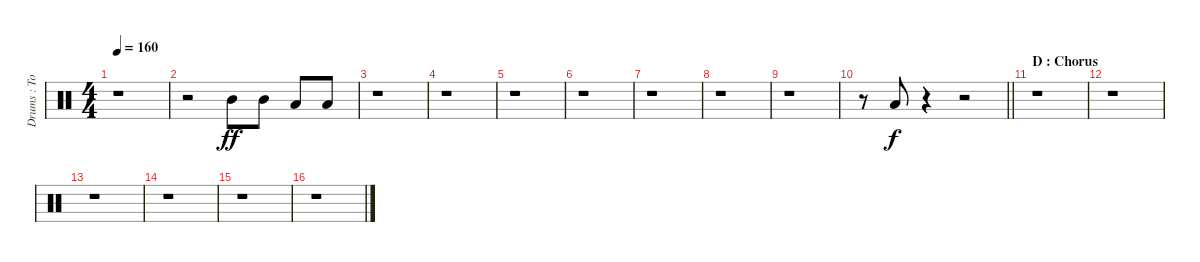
\track ("Drums : Tom" "Drums : To") {instrument percussion}
\staff {score}
\articulation defaults
\ts (4 4)
\tempo 160
\clef neutral
\ks c
r.1{dy ff} |
r.2 "Mid Tom (hit)".8 "Mid Tom (hit)".8 "Low Tom (hit)".8 "Low Tom (hit)".8 |
r.1 |
r.1 |
r.1 |
r.1 |
r.1 |
r.1 |
r.1 |
\barLineRight lightlight
r.8 "Low Tom (hit)".8{dy f} r.4 r.2 |
\section ("" "D : Chorus")
r.1 |
r.1 |
r.1 |
r.1 |
r.1 |
r.1
